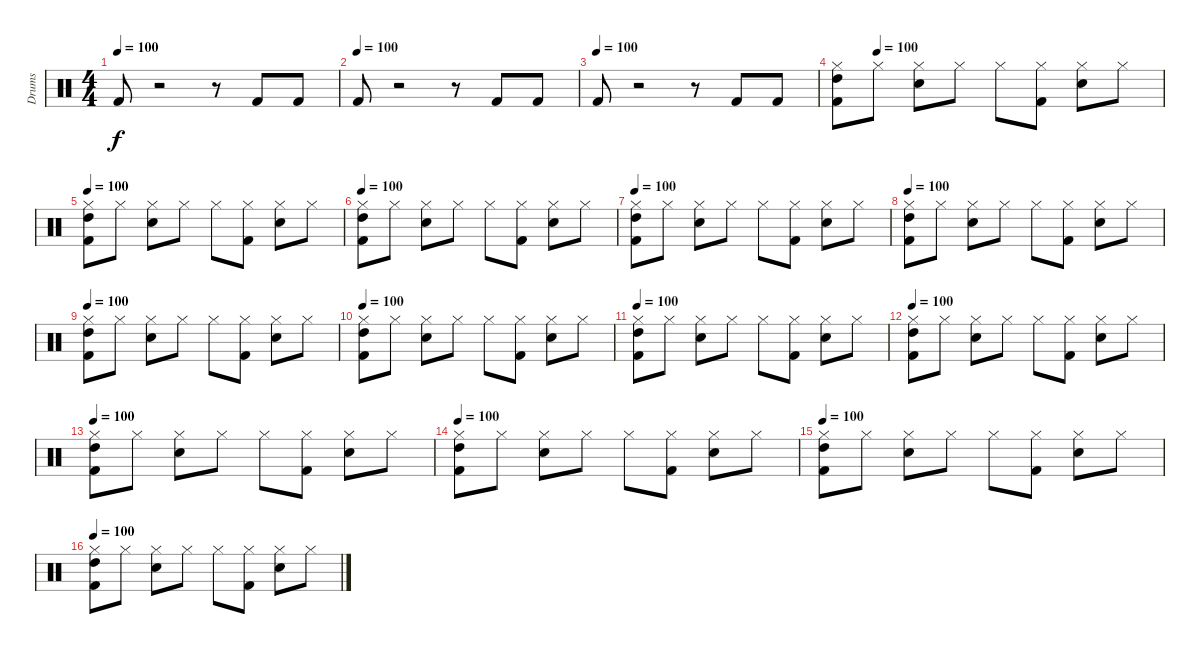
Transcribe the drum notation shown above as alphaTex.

\track ("Drums" "Drums") {instrument percussion}
\staff {score}
\articulation defaults
\ts (4 4)
\tempo 100
\clef neutral
\ks c "Kick (hit) 2".8{dy f}
r.2 r.8 "Kick (hit) 2".8 "Kick (hit) 2".8 |
\tempo (100)
"Kick (hit) 2".8 r.2 r.8 "Kick (hit) 2".8 "Kick (hit) 2".8 |
\tempo (100)
"Kick (hit) 2".8 r.2 r.8 "Kick (hit) 2".8 "Kick (hit) 2".8 |
\tempo (100 0.125)
("High Tom (hit)" "Hi-Hat (closed)" "Kick (hit) 2").8 "Hi-Hat (closed)".8 ("Electric Snare (hit)" "Hi-Hat (closed)").8 "Hi-Hat (closed)".8 "Hi-Hat (closed)".8 ("Kick (hit) 2" "Hi-Hat (closed)").8 ("Electric Snare (hit)" "Hi-Hat (closed)").8 "Hi-Hat (closed)".8 |
\tempo 100
("High Tom (hit)" "Hi-Hat (closed)" "Kick (hit) 2").8 "Hi-Hat (closed)".8 ("Electric Snare (hit)" "Hi-Hat (closed)").8 "Hi-Hat (closed)".8 "Hi-Hat (closed)".8 ("Kick (hit) 2" "Hi-Hat (closed)").8 ("Electric Snare (hit)" "Hi-Hat (closed)").8 "Hi-Hat (closed)".8 |
\tempo 100
("High Tom (hit)" "Hi-Hat (closed)" "Kick (hit) 2").8 "Hi-Hat (closed)".8 ("Electric Snare (hit)" "Hi-Hat (closed)").8 "Hi-Hat (closed)".8 "Hi-Hat (closed)".8 ("Kick (hit) 2" "Hi-Hat (closed)").8 ("Electric Snare (hit)" "Hi-Hat (closed)").8 "Hi-Hat (closed)".8 |
\tempo 100
("High Tom (hit)" "Hi-Hat (closed)" "Kick (hit) 2").8 "Hi-Hat (closed)".8 ("Electric Snare (hit)" "Hi-Hat (closed)").8 "Hi-Hat (closed)".8 "Hi-Hat (closed)".8 ("Kick (hit) 2" "Hi-Hat (closed)").8 ("Electric Snare (hit)" "Hi-Hat (closed)").8 "Hi-Hat (closed)".8 |
\tempo 100
("High Tom (hit)" "Hi-Hat (closed)" "Kick (hit) 2").8 "Hi-Hat (closed)".8 ("Electric Snare (hit)" "Hi-Hat (closed)").8 "Hi-Hat (closed)".8 "Hi-Hat (closed)".8 ("Kick (hit) 2" "Hi-Hat (closed)").8 ("Electric Snare (hit)" "Hi-Hat (closed)").8 "Hi-Hat (closed)".8 |
\tempo 100
("High Tom (hit)" "Hi-Hat (closed)" "Kick (hit) 2").8 "Hi-Hat (closed)".8 ("Electric Snare (hit)" "Hi-Hat (closed)").8 "Hi-Hat (closed)".8 "Hi-Hat (closed)".8 ("Kick (hit) 2" "Hi-Hat (closed)").8 ("Electric Snare (hit)" "Hi-Hat (closed)").8 "Hi-Hat (closed)".8 |
\tempo 100
("High Tom (hit)" "Hi-Hat (closed)" "Kick (hit) 2").8 "Hi-Hat (closed)".8 ("Electric Snare (hit)" "Hi-Hat (closed)").8 "Hi-Hat (closed)".8 "Hi-Hat (closed)".8 ("Kick (hit) 2" "Hi-Hat (closed)").8 ("Electric Snare (hit)" "Hi-Hat (closed)").8 "Hi-Hat (closed)".8 |
\tempo 100
("High Tom (hit)" "Hi-Hat (closed)" "Kick (hit) 2").8 "Hi-Hat (closed)".8 ("Electric Snare (hit)" "Hi-Hat (closed)").8 "Hi-Hat (closed)".8 "Hi-Hat (closed)".8 ("Kick (hit) 2" "Hi-Hat (closed)").8 ("Electric Snare (hit)" "Hi-Hat (closed)").8 "Hi-Hat (closed)".8 |
\tempo 100
("High Tom (hit)" "Hi-Hat (closed)" "Kick (hit) 2").8 "Hi-Hat (closed)".8 ("Electric Snare (hit)" "Hi-Hat (closed)").8 "Hi-Hat (closed)".8 "Hi-Hat (closed)".8 ("Kick (hit) 2" "Hi-Hat (closed)").8 ("Electric Snare (hit)" "Hi-Hat (closed)").8 "Hi-Hat (closed)".8 |
\tempo 100
("High Tom (hit)" "Hi-Hat (closed)" "Kick (hit) 2").8 "Hi-Hat (closed)".8 ("Electric Snare (hit)" "Hi-Hat (closed)").8 "Hi-Hat (closed)".8 "Hi-Hat (closed)".8 ("Kick (hit) 2" "Hi-Hat (closed)").8 ("Electric Snare (hit)" "Hi-Hat (closed)").8 "Hi-Hat (closed)".8 |
\tempo 100
("High Tom (hit)" "Hi-Hat (closed)" "Kick (hit) 2").8 "Hi-Hat (closed)".8 ("Electric Snare (hit)" "Hi-Hat (closed)").8 "Hi-Hat (closed)".8 "Hi-Hat (closed)".8 ("Kick (hit) 2" "Hi-Hat (closed)").8 ("Electric Snare (hit)" "Hi-Hat (closed)").8 "Hi-Hat (closed)".8 |
\tempo 100
("High Tom (hit)" "Hi-Hat (closed)" "Kick (hit) 2").8 "Hi-Hat (closed)".8 ("Electric Snare (hit)" "Hi-Hat (closed)").8 "Hi-Hat (closed)".8 "Hi-Hat (closed)".8 ("Kick (hit) 2" "Hi-Hat (closed)").8 ("Electric Snare (hit)" "Hi-Hat (closed)").8 "Hi-Hat (closed)".8 |
\tempo 100
("High Tom (hit)" "Hi-Hat (closed)" "Kick (hit) 2").8 "Hi-Hat (closed)".8 ("Electric Snare (hit)" "Hi-Hat (closed)").8 "Hi-Hat (closed)".8 "Hi-Hat (closed)".8 ("Kick (hit) 2" "Hi-Hat (closed)").8 ("Electric Snare (hit)" "Hi-Hat (closed)").8 "Hi-Hat (closed)".8
